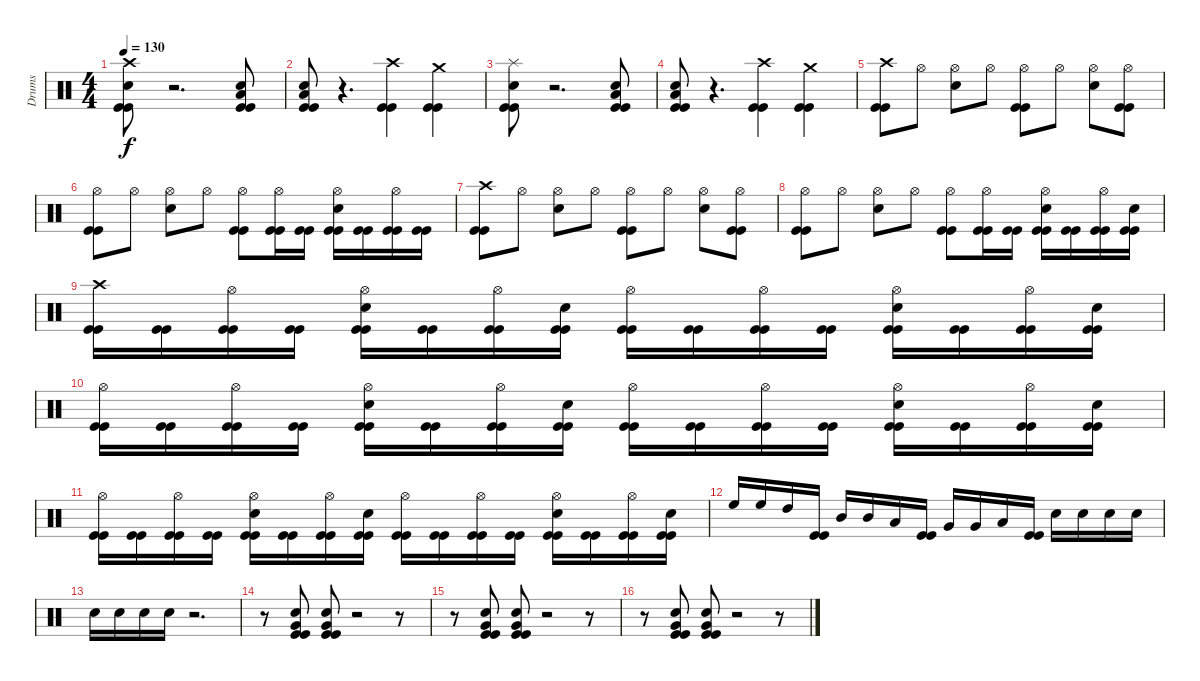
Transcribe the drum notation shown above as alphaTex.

\track ("Drums" "Drums") {instrument percussion}
\staff {score}
\articulation defaults
\ts (4 4)
\tempo 130
\clef neutral
\ks c
("Kick (hit)" "Kick (hit)" "Snare (hit) 2" "Crash high (hit)").8{dy f} r.2{d} ("Kick (hit)" "Kick (hit)" "Snare (hit) 2" "Low Floor Tom (hit)").8 |
("Kick (hit)" "Kick (hit)" "Snare (hit) 2" "Low Floor Tom (hit)").8 r.4{d} ("Kick (hit)" "Kick (hit)" "Crash high (hit)").4 ("Kick (hit)" "Kick (hit)" "Crash medium (hit)").4 |
("Kick (hit)" "Kick (hit)" "Snare (hit) 2" "Splash (hit)").8 r.2{d} ("Kick (hit)" "Kick (hit)" "Snare (hit) 2" "Low Floor Tom (hit)").8 |
("Kick (hit)" "Kick (hit)" "Snare (hit) 2" "Low Floor Tom (hit)").8 r.4{d} ("Kick (hit)" "Kick (hit)" "Crash high (hit)").4 ("Kick (hit)" "Kick (hit)" "Crash medium (hit)").4 |
("Kick (hit)" "Kick (hit)" "Crash high (hit)").8 "Hi-Hat (open)".8 ("Snare (hit) 2" "Hi-Hat (open)").8 "Hi-Hat (open)".8 ("Kick (hit)" "Kick (hit)" "Hi-Hat (open)").8 "Hi-Hat (open)".8 ("Snare (hit) 2" "Hi-Hat (open)").8 ("Kick (hit)" "Kick (hit)" "Hi-Hat (open)").8 |
("Kick (hit)" "Kick (hit)" "Hi-Hat (open)").8 "Hi-Hat (open)".8 ("Snare (hit) 2" "Hi-Hat (open)").8 "Hi-Hat (open)".8 ("Kick (hit)" "Kick (hit)" "Hi-Hat (open)").8 ("Kick (hit)" "Kick (hit)" "Hi-Hat (open)").16 ("Kick (hit)" "Kick (hit)").16 ("Kick (hit)" "Kick (hit)" "Snare (hit) 2" "Hi-Hat (open)").16 ("Kick (hit)" "Kick (hit)").16 ("Kick (hit)" "Kick (hit)" "Hi-Hat (open)").16 ("Kick (hit)" "Kick (hit)").16 |
("Kick (hit)" "Kick (hit)" "Crash high (hit)").8 "Hi-Hat (open)".8 ("Snare (hit) 2" "Hi-Hat (open)").8 "Hi-Hat (open)".8 ("Kick (hit)" "Kick (hit)" "Hi-Hat (open)").8 "Hi-Hat (open)".8 ("Snare (hit) 2" "Hi-Hat (open)").8 ("Kick (hit)" "Kick (hit)" "Hi-Hat (open)").8 |
("Kick (hit)" "Kick (hit)" "Hi-Hat (open)").8 "Hi-Hat (open)".8 ("Snare (hit) 2" "Hi-Hat (open)").8 "Hi-Hat (open)".8 ("Kick (hit)" "Kick (hit)" "Hi-Hat (open)").8 ("Kick (hit)" "Kick (hit)" "Hi-Hat (open)").16 ("Kick (hit)" "Kick (hit)").16 ("Kick (hit)" "Kick (hit)" "Snare (hit) 2" "Hi-Hat (open)").16 ("Kick (hit)" "Kick (hit)").16 ("Kick (hit)" "Kick (hit)" "Hi-Hat (open)").16 ("Kick (hit)" "Kick (hit)" "Snare (hit) 2").16 |
("Kick (hit)" "Kick (hit)" "Crash high (hit)").16 ("Kick (hit)" "Kick (hit)").16 ("Kick (hit)" "Kick (hit)" "Hi-Hat (open)").16 ("Kick (hit)" "Kick (hit)").16 ("Kick (hit)" "Kick (hit)" "Snare (hit) 2" "Hi-Hat (open)").16 ("Kick (hit)" "Kick (hit)").16 ("Kick (hit)" "Kick (hit)" "Hi-Hat (open)").16 ("Kick (hit)" "Kick (hit)" "Snare (hit) 2").16 ("Kick (hit)" "Kick (hit)" "Hi-Hat (open)").16 ("Kick (hit)" "Kick (hit)").16 ("Kick (hit)" "Kick (hit)" "Hi-Hat (open)").16 ("Kick (hit)" "Kick (hit)").16 ("Kick (hit)" "Kick (hit)" "Snare (hit) 2" "Hi-Hat (open)").16 ("Kick (hit)" "Kick (hit)").16 ("Kick (hit)" "Kick (hit)" "Hi-Hat (open)").16 ("Kick (hit)" "Kick (hit)" "Snare (hit) 2").16 |
("Kick (hit)" "Kick (hit)" "Hi-Hat (open)").16 ("Kick (hit)" "Kick (hit)").16 ("Kick (hit)" "Kick (hit)" "Hi-Hat (open)").16 ("Kick (hit)" "Kick (hit)").16 ("Kick (hit)" "Kick (hit)" "Snare (hit) 2" "Hi-Hat (open)").16 ("Kick (hit)" "Kick (hit)").16 ("Kick (hit)" "Kick (hit)" "Hi-Hat (open)").16 ("Kick (hit)" "Kick (hit)" "Snare (hit) 2").16 ("Kick (hit)" "Kick (hit)" "Hi-Hat (open)").16 ("Kick (hit)" "Kick (hit)").16 ("Kick (hit)" "Kick (hit)" "Hi-Hat (open)").16 ("Kick (hit)" "Kick (hit)").16 ("Kick (hit)" "Kick (hit)" "Snare (hit) 2" "Hi-Hat (open)").16 ("Kick (hit)" "Kick (hit)").16 ("Kick (hit)" "Kick (hit)" "Hi-Hat (open)").16 ("Kick (hit)" "Kick (hit)" "Snare (hit) 2").16 |
("Kick (hit)" "Kick (hit)" "Hi-Hat (open)").16 ("Kick (hit)" "Kick (hit)").16 ("Kick (hit)" "Kick (hit)" "Hi-Hat (open)").16 ("Kick (hit)" "Kick (hit)").16 ("Kick (hit)" "Kick (hit)" "Snare (hit) 2" "Hi-Hat (open)").16 ("Kick (hit)" "Kick (hit)").16 ("Kick (hit)" "Kick (hit)" "Hi-Hat (open)").16 ("Kick (hit)" "Kick (hit)" "Snare (hit) 2").16 ("Kick (hit)" "Kick (hit)" "Hi-Hat (open)").16 ("Kick (hit)" "Kick (hit)").16 ("Kick (hit)" "Kick (hit)" "Hi-Hat (open)").16 ("Kick (hit)" "Kick (hit)").16 ("Kick (hit)" "Kick (hit)" "Snare (hit) 2" "Hi-Hat (open)").16 ("Kick (hit)" "Kick (hit)").16 ("Kick (hit)" "Kick (hit)" "Hi-Hat (open)").16 ("Kick (hit)" "Kick (hit)" "Snare (hit) 2").16 |
"High Floor Tom (hit)".16 "High Floor Tom (hit)".16 "High Tom (hit)".16 ("Kick (hit)" "Kick (hit)").16 "Mid Tom (hit)".16 "Mid Tom (hit)".16 "Low Tom (hit)".16 ("Kick (hit)" "Kick (hit)").16 "Very Low Tom (hit)".16 "Very Low Tom (hit)".16 "Low Floor Tom (hit)".16 ("Kick (hit)" "Kick (hit)").16 "Snare (hit) 2".16 "Snare (hit) 2".16 "Snare (hit) 2".16 "Snare (hit) 2".16 |
"Snare (hit) 2".16 "Snare (hit) 2".16 "Snare (hit) 2".16 "Snare (hit) 2".16 r.2{d} |
r.8 ("Kick (hit)" "Kick (hit)" "Very Low Tom (hit)" "Snare (hit) 2").8 ("Kick (hit)" "Kick (hit)" "Very Low Tom (hit)" "Snare (hit) 2").8 r.2 r.8 |
r.8 ("Kick (hit)" "Kick (hit)" "Very Low Tom (hit)" "Snare (hit) 2").8 ("Kick (hit)" "Kick (hit)" "Very Low Tom (hit)" "Snare (hit) 2").8 r.2 r.8 |
r.8 ("Kick (hit)" "Kick (hit)" "Very Low Tom (hit)" "Snare (hit) 2").8 ("Kick (hit)" "Kick (hit)" "Very Low Tom (hit)" "Snare (hit) 2").8 r.2 r.8
